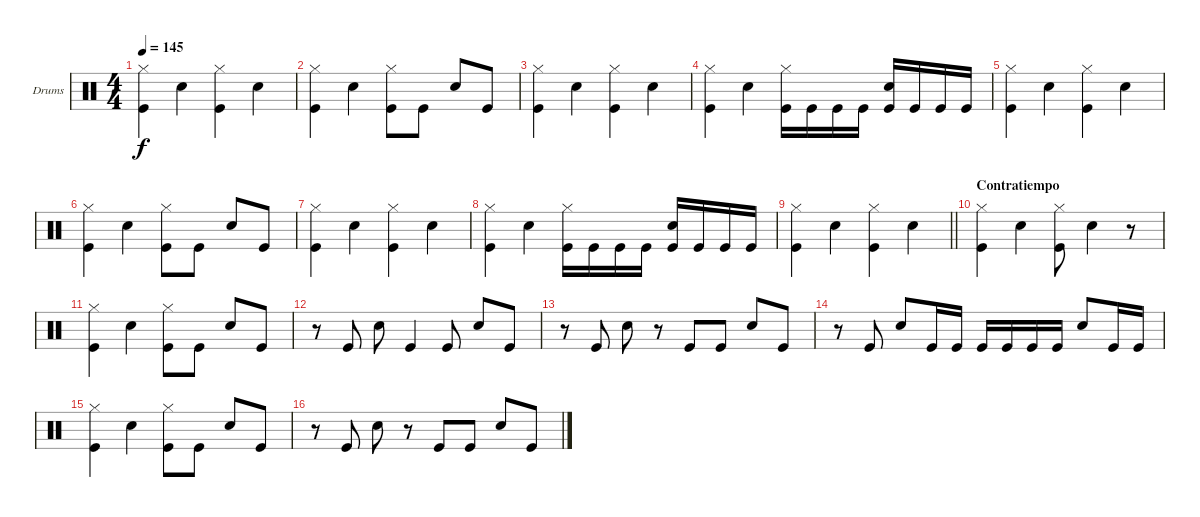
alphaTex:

\bracketExtendMode groupsimilarinstruments
\firstSystemTrackNameOrientation horizontal
\otherSystemsTrackNameOrientation horizontal
\track ("Drumkit" "Drums") {instrument percussion}
\staff {score}
\articulation defaults
\ts (4 4)
\tempo 145
\clef neutral
\ks c
("Hi-Hat (closed)" "Kick (hit)").4{dy f} "Snare (hit) 2".4 ("Hi-Hat (closed)" "Kick (hit)").4 "Snare (hit) 2".4 |
("Hi-Hat (closed)" "Kick (hit)").4 "Snare (hit) 2".4 ("Hi-Hat (closed)" "Kick (hit)").8 "Kick (hit)".8 "Snare (hit) 2".8 "Kick (hit)".8 |
("Hi-Hat (closed)" "Kick (hit)").4 "Snare (hit) 2".4 ("Hi-Hat (closed)" "Kick (hit)").4 "Snare (hit) 2".4 |
("Hi-Hat (closed)" "Kick (hit)").4 "Snare (hit) 2".4 ("Hi-Hat (closed)" "Kick (hit)").16 "Kick (hit)".16 "Kick (hit)".16 "Kick (hit)".16 ("Snare (hit) 2" "Kick (hit)").16 "Kick (hit)".16 "Kick (hit)".16 "Kick (hit)".16 |
("Hi-Hat (closed)" "Kick (hit)").4 "Snare (hit) 2".4 ("Hi-Hat (closed)" "Kick (hit)").4 "Snare (hit) 2".4 |
("Hi-Hat (closed)" "Kick (hit)").4 "Snare (hit) 2".4 ("Hi-Hat (closed)" "Kick (hit)").8 "Kick (hit)".8 "Snare (hit) 2".8 "Kick (hit)".8 |
("Hi-Hat (closed)" "Kick (hit)").4 "Snare (hit) 2".4 ("Hi-Hat (closed)" "Kick (hit)").4 "Snare (hit) 2".4 |
("Hi-Hat (closed)" "Kick (hit)").4 "Snare (hit) 2".4 ("Hi-Hat (closed)" "Kick (hit)").16 "Kick (hit)".16 "Kick (hit)".16 "Kick (hit)".16 ("Snare (hit) 2" "Kick (hit)").16 "Kick (hit)".16 "Kick (hit)".16 "Kick (hit)".16 |
\barLineRight lightlight
("Hi-Hat (closed)" "Kick (hit)").4 "Snare (hit) 2".4 ("Hi-Hat (closed)" "Kick (hit)").4 "Snare (hit) 2".4 |
\section ("" "Contratiempo")
("Hi-Hat (closed)" "Kick (hit)").4 "Snare (hit) 2".4 ("Hi-Hat (closed)" "Kick (hit)").8 "Snare (hit) 2".4 r.8 |
("Hi-Hat (closed)" "Kick (hit)").4 "Snare (hit) 2".4 ("Hi-Hat (closed)" "Kick (hit)").8 "Kick (hit)".8 "Snare (hit) 2".8 "Kick (hit)".8 |
r.8 "Kick (hit)".8 "Snare (hit) 2".8 "Kick (hit)".4 "Kick (hit)".8 "Snare (hit) 2".8 "Kick (hit)".8 |
r.8 "Kick (hit)".8 "Snare (hit) 2".8 r.8 "Kick (hit)".8 "Kick (hit)".8 "Snare (hit) 2".8 "Kick (hit)".8 |
r.8 "Kick (hit)".8 "Snare (hit) 2".8 "Kick (hit)".16 "Kick (hit)".16 "Kick (hit)".16 "Kick (hit)".16 "Kick (hit)".16 "Kick (hit)".16 "Snare (hit) 2".8 "Kick (hit)".16 "Kick (hit)".16 |
("Hi-Hat (closed)" "Kick (hit)").4 "Snare (hit) 2".4 ("Hi-Hat (closed)" "Kick (hit)").8 "Kick (hit)".8 "Snare (hit) 2".8 "Kick (hit)".8 |
r.8 "Kick (hit)".8 "Snare (hit) 2".8 r.8 "Kick (hit)".8 "Kick (hit)".8 "Snare (hit) 2".8 "Kick (hit)".8
